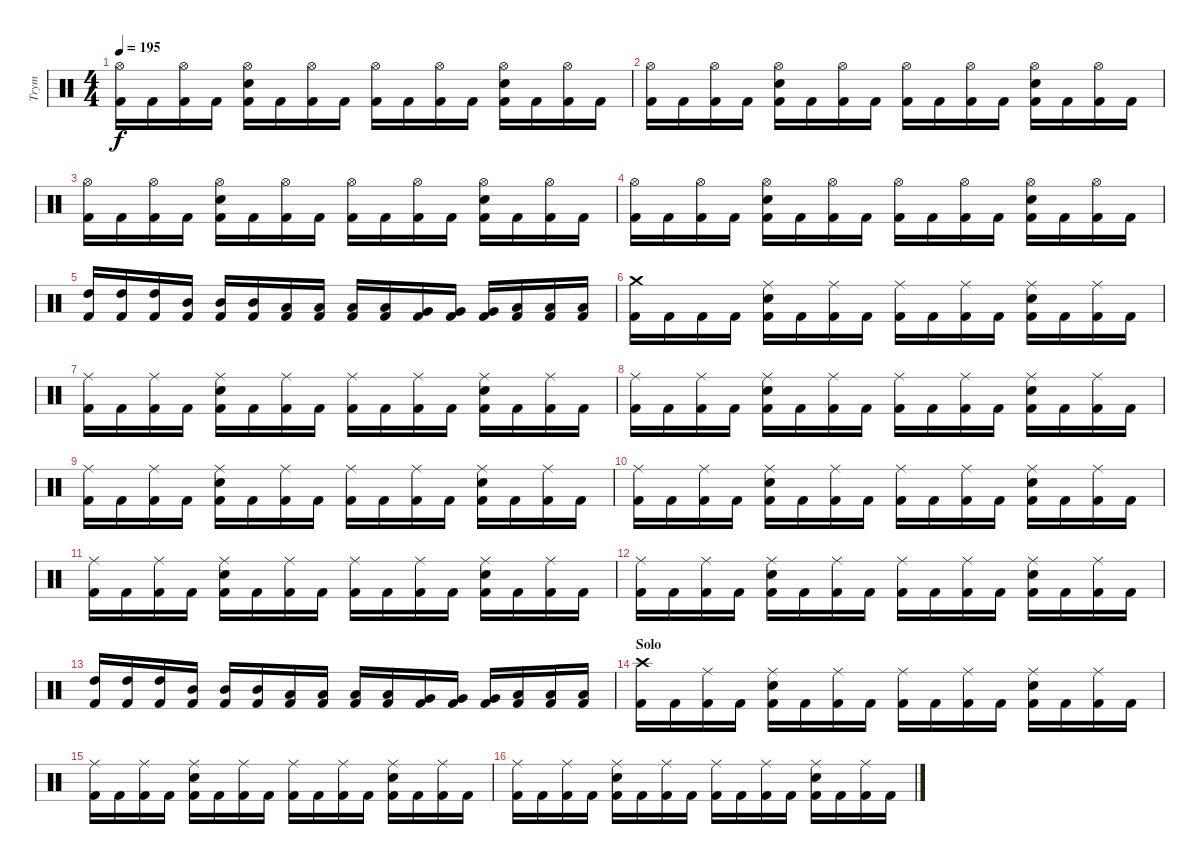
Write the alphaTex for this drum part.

\track ("Trym" "Trym") {instrument percussion}
\staff {score}
\articulation defaults
\ts (4 4)
\tempo 195
\clef neutral
\ks c
("Hi-Hat (open)" "Kick (hit) 2").16{dy f} "Kick (hit) 2".16 ("Hi-Hat (open)" "Kick (hit) 2").16 "Kick (hit) 2".16 ("Hi-Hat (open)" "Electric Snare (hit)" "Kick (hit) 2").16 "Kick (hit) 2".16 ("Hi-Hat (open)" "Kick (hit) 2").16 "Kick (hit) 2".16 ("Hi-Hat (open)" "Kick (hit) 2").16 "Kick (hit) 2".16 ("Hi-Hat (open)" "Kick (hit) 2").16 "Kick (hit) 2".16 ("Hi-Hat (open)" "Electric Snare (hit)" "Kick (hit) 2").16 "Kick (hit) 2".16 ("Hi-Hat (open)" "Kick (hit) 2").16 "Kick (hit) 2".16 |
("Hi-Hat (open)" "Kick (hit) 2").16 "Kick (hit) 2".16 ("Hi-Hat (open)" "Kick (hit) 2").16 "Kick (hit) 2".16 ("Hi-Hat (open)" "Electric Snare (hit)" "Kick (hit) 2").16 "Kick (hit) 2".16 ("Hi-Hat (open)" "Kick (hit) 2").16 "Kick (hit) 2".16 ("Hi-Hat (open)" "Kick (hit) 2").16 "Kick (hit) 2".16 ("Hi-Hat (open)" "Kick (hit) 2").16 "Kick (hit) 2".16 ("Hi-Hat (open)" "Electric Snare (hit)" "Kick (hit) 2").16 "Kick (hit) 2".16 ("Hi-Hat (open)" "Kick (hit) 2").16 "Kick (hit) 2".16 |
("Hi-Hat (open)" "Kick (hit) 2").16 "Kick (hit) 2".16 ("Hi-Hat (open)" "Kick (hit) 2").16 "Kick (hit) 2".16 ("Hi-Hat (open)" "Electric Snare (hit)" "Kick (hit) 2").16 "Kick (hit) 2".16 ("Hi-Hat (open)" "Kick (hit) 2").16 "Kick (hit) 2".16 ("Hi-Hat (open)" "Kick (hit) 2").16 "Kick (hit) 2".16 ("Hi-Hat (open)" "Kick (hit) 2").16 "Kick (hit) 2".16 ("Hi-Hat (open)" "Electric Snare (hit)" "Kick (hit) 2").16 "Kick (hit) 2".16 ("Hi-Hat (open)" "Kick (hit) 2").16 "Kick (hit) 2".16 |
("Hi-Hat (open)" "Kick (hit) 2").16 "Kick (hit) 2".16 ("Hi-Hat (open)" "Kick (hit) 2").16 "Kick (hit) 2".16 ("Hi-Hat (open)" "Electric Snare (hit)" "Kick (hit) 2").16 "Kick (hit) 2".16 ("Hi-Hat (open)" "Kick (hit) 2").16 "Kick (hit) 2".16 ("Hi-Hat (open)" "Kick (hit) 2").16 "Kick (hit) 2".16 ("Hi-Hat (open)" "Kick (hit) 2").16 "Kick (hit) 2".16 ("Hi-Hat (open)" "Electric Snare (hit)" "Kick (hit) 2").16 "Kick (hit) 2".16 ("Hi-Hat (open)" "Kick (hit) 2").16 "Kick (hit) 2".16 |
("High Tom (hit)" "Kick (hit) 2").16 ("High Tom (hit)" "Kick (hit) 2").16 ("High Tom (hit)" "Kick (hit) 2").16 ("Mid Tom (hit)" "Kick (hit) 2").16 ("Mid Tom (hit)" "Kick (hit) 2").16 ("Mid Tom (hit)" "Kick (hit) 2").16 ("Low Tom (hit)" "Kick (hit) 2").16 ("Low Tom (hit)" "Kick (hit) 2").16 ("Low Tom (hit)" "Kick (hit) 2").16 ("Low Tom (hit)" "Kick (hit) 2").16 ("Very Low Tom (hit)" "Kick (hit) 2").16 ("Very Low Tom (hit)" "Kick (hit) 2").16 ("Very Low Tom (hit)" "Kick (hit) 2").16 ("Low Floor Tom (hit)" "Kick (hit) 2").16 ("Low Floor Tom (hit)" "Kick (hit) 2").16 ("Low Floor Tom (hit)" "Kick (hit) 2").16 |
("Crash medium (hit)" "Kick (hit) 2").16 "Kick (hit) 2".16 "Kick (hit) 2".16 "Kick (hit) 2".16 ("Ride (middle)" "Electric Snare (hit)" "Kick (hit) 2").16 "Kick (hit) 2".16 ("Ride (middle)" "Kick (hit) 2").16 "Kick (hit) 2".16 ("Ride (middle)" "Kick (hit) 2").16 "Kick (hit) 2".16 ("Ride (middle)" "Kick (hit) 2").16 "Kick (hit) 2".16 ("Ride (middle)" "Electric Snare (hit)" "Kick (hit) 2").16 "Kick (hit) 2".16 ("Ride (middle)" "Kick (hit) 2").16 "Kick (hit) 2".16 |
("Ride (middle)" "Kick (hit) 2").16 "Kick (hit) 2".16 ("Ride (middle)" "Kick (hit) 2").16 "Kick (hit) 2".16 ("Ride (middle)" "Electric Snare (hit)" "Kick (hit) 2").16 "Kick (hit) 2".16 ("Ride (middle)" "Kick (hit) 2").16 "Kick (hit) 2".16 ("Ride (middle)" "Kick (hit) 2").16 "Kick (hit) 2".16 ("Ride (middle)" "Kick (hit) 2").16 "Kick (hit) 2".16 ("Ride (middle)" "Electric Snare (hit)" "Kick (hit) 2").16 "Kick (hit) 2".16 ("Ride (middle)" "Kick (hit) 2").16 "Kick (hit) 2".16 |
("Ride (middle)" "Kick (hit) 2").16 "Kick (hit) 2".16 ("Ride (middle)" "Kick (hit) 2").16 "Kick (hit) 2".16 ("Ride (middle)" "Electric Snare (hit)" "Kick (hit) 2").16 "Kick (hit) 2".16 ("Ride (middle)" "Kick (hit) 2").16 "Kick (hit) 2".16 ("Ride (middle)" "Kick (hit) 2").16 "Kick (hit) 2".16 ("Ride (middle)" "Kick (hit) 2").16 "Kick (hit) 2".16 ("Ride (middle)" "Electric Snare (hit)" "Kick (hit) 2").16 "Kick (hit) 2".16 ("Ride (middle)" "Kick (hit) 2").16 "Kick (hit) 2".16 |
("Ride (middle)" "Kick (hit) 2").16 "Kick (hit) 2".16 ("Ride (middle)" "Kick (hit) 2").16 "Kick (hit) 2".16 ("Ride (middle)" "Electric Snare (hit)" "Kick (hit) 2").16 "Kick (hit) 2".16 ("Ride (middle)" "Kick (hit) 2").16 "Kick (hit) 2".16 ("Ride (middle)" "Kick (hit) 2").16 "Kick (hit) 2".16 ("Ride (middle)" "Kick (hit) 2").16 "Kick (hit) 2".16 ("Ride (middle)" "Electric Snare (hit)" "Kick (hit) 2").16 "Kick (hit) 2".16 ("Ride (middle)" "Kick (hit) 2").16 "Kick (hit) 2".16 |
("Ride (middle)" "Kick (hit) 2").16 "Kick (hit) 2".16 ("Ride (middle)" "Kick (hit) 2").16 "Kick (hit) 2".16 ("Ride (middle)" "Electric Snare (hit)" "Kick (hit) 2").16 "Kick (hit) 2".16 ("Ride (middle)" "Kick (hit) 2").16 "Kick (hit) 2".16 ("Ride (middle)" "Kick (hit) 2").16 "Kick (hit) 2".16 ("Ride (middle)" "Kick (hit) 2").16 "Kick (hit) 2".16 ("Ride (middle)" "Electric Snare (hit)" "Kick (hit) 2").16 "Kick (hit) 2".16 ("Ride (middle)" "Kick (hit) 2").16 "Kick (hit) 2".16 |
("Ride (middle)" "Kick (hit) 2").16 "Kick (hit) 2".16 ("Ride (middle)" "Kick (hit) 2").16 "Kick (hit) 2".16 ("Ride (middle)" "Electric Snare (hit)" "Kick (hit) 2").16 "Kick (hit) 2".16 ("Ride (middle)" "Kick (hit) 2").16 "Kick (hit) 2".16 ("Ride (middle)" "Kick (hit) 2").16 "Kick (hit) 2".16 ("Ride (middle)" "Kick (hit) 2").16 "Kick (hit) 2".16 ("Ride (middle)" "Electric Snare (hit)" "Kick (hit) 2").16 "Kick (hit) 2".16 ("Ride (middle)" "Kick (hit) 2").16 "Kick (hit) 2".16 |
("Ride (middle)" "Kick (hit) 2").16 "Kick (hit) 2".16 ("Ride (middle)" "Kick (hit) 2").16 "Kick (hit) 2".16 ("Ride (middle)" "Electric Snare (hit)" "Kick (hit) 2").16 "Kick (hit) 2".16 ("Ride (middle)" "Kick (hit) 2").16 "Kick (hit) 2".16 ("Ride (middle)" "Kick (hit) 2").16 "Kick (hit) 2".16 ("Ride (middle)" "Kick (hit) 2").16 "Kick (hit) 2".16 ("Ride (middle)" "Electric Snare (hit)" "Kick (hit) 2").16 "Kick (hit) 2".16 ("Ride (middle)" "Kick (hit) 2").16 "Kick (hit) 2".16 |
("High Tom (hit)" "Kick (hit) 2").16 ("High Tom (hit)" "Kick (hit) 2").16 ("High Tom (hit)" "Kick (hit) 2").16 ("Mid Tom (hit)" "Kick (hit) 2").16 ("Mid Tom (hit)" "Kick (hit) 2").16 ("Mid Tom (hit)" "Kick (hit) 2").16 ("Low Tom (hit)" "Kick (hit) 2").16 ("Low Tom (hit)" "Kick (hit) 2").16 ("Low Tom (hit)" "Kick (hit) 2").16 ("Low Tom (hit)" "Kick (hit) 2").16 ("Very Low Tom (hit)" "Kick (hit) 2").16 ("Very Low Tom (hit)" "Kick (hit) 2").16 ("Very Low Tom (hit)" "Kick (hit) 2").16 ("Low Floor Tom (hit)" "Kick (hit) 2").16 ("Low Floor Tom (hit)" "Kick (hit) 2").16 ("Low Floor Tom (hit)" "Kick (hit) 2").16 |
\section ("" "Solo")
("Crash high (hit)" "Kick (hit) 2").16 "Kick (hit) 2".16 ("Ride (middle)" "Kick (hit) 2").16 "Kick (hit) 2".16 ("Ride (middle)" "Electric Snare (hit)" "Kick (hit) 2").16 "Kick (hit) 2".16 ("Ride (middle)" "Kick (hit) 2").16 "Kick (hit) 2".16 ("Ride (middle)" "Kick (hit) 2").16 "Kick (hit) 2".16 ("Ride (middle)" "Kick (hit) 2").16 "Kick (hit) 2".16 ("Ride (middle)" "Electric Snare (hit)" "Kick (hit) 2").16 "Kick (hit) 2".16 ("Ride (middle)" "Kick (hit) 2").16 "Kick (hit) 2".16 |
("Ride (middle)" "Kick (hit) 2").16 "Kick (hit) 2".16 ("Ride (middle)" "Kick (hit) 2").16 "Kick (hit) 2".16 ("Ride (middle)" "Electric Snare (hit)" "Kick (hit) 2").16 "Kick (hit) 2".16 ("Ride (middle)" "Kick (hit) 2").16 "Kick (hit) 2".16 ("Ride (middle)" "Kick (hit) 2").16 "Kick (hit) 2".16 ("Ride (middle)" "Kick (hit) 2").16 "Kick (hit) 2".16 ("Ride (middle)" "Electric Snare (hit)" "Kick (hit) 2").16 "Kick (hit) 2".16 ("Ride (middle)" "Kick (hit) 2").16 "Kick (hit) 2".16 |
("Ride (middle)" "Kick (hit) 2").16 "Kick (hit) 2".16 ("Ride (middle)" "Kick (hit) 2").16 "Kick (hit) 2".16 ("Ride (middle)" "Electric Snare (hit)" "Kick (hit) 2").16 "Kick (hit) 2".16 ("Ride (middle)" "Kick (hit) 2").16 "Kick (hit) 2".16 ("Ride (middle)" "Kick (hit) 2").16 "Kick (hit) 2".16 ("Ride (middle)" "Kick (hit) 2").16 "Kick (hit) 2".16 ("Ride (middle)" "Electric Snare (hit)" "Kick (hit) 2").16 "Kick (hit) 2".16 ("Ride (middle)" "Kick (hit) 2").16 "Kick (hit) 2".16
